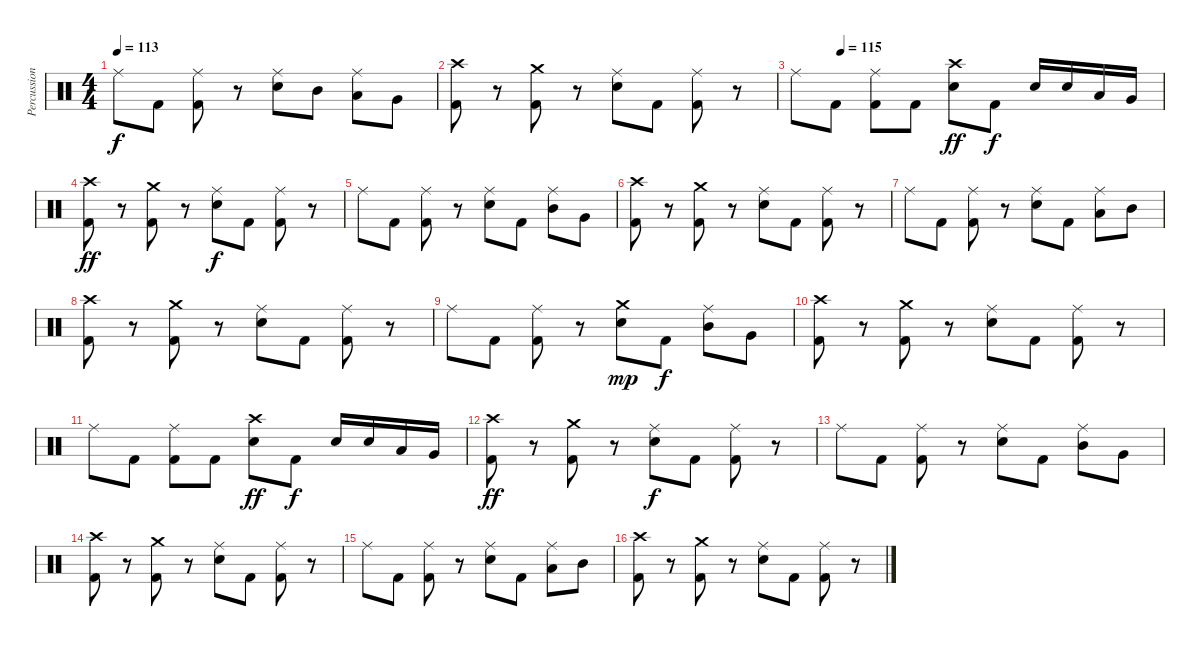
\track ("Percussion" "Percussion") {instrument percussion}
\staff {score}
\articulation defaults
\ts (4 4)
\tempo 113
\clef neutral
\ks c "Ride (middle)".8{dy f} "Kick (hit) 2".8
("Ride (middle)" "Kick (hit) 2").8 r.8 ("Ride (middle)" "Snare (hit) 2").8 "Mid Tom (hit)".8 ("Ride (middle)" "Low Tom (hit)").8 "Very Low Tom (hit)".8 |
("Crash high (hit)" "Kick (hit) 2").8 r.8 ("Crash medium (hit)" "Kick (hit) 2").8 r.8 ("Ride (middle)" "Snare (hit) 2").8 "Kick (hit) 2".8 ("Ride (middle)" "Kick (hit) 2").8 r.8 |
\tempo (115 0.125)
"Ride (middle)".8 "Kick (hit) 2".8 ("Ride (middle)" "Kick (hit) 2").8 "Kick (hit) 2".8 ("Crash high (hit)" "Snare (hit) 2").8{dy ff} "Kick (hit) 2".8{dy f} "Snare (hit) 2".16 "Snare (hit) 2".16 "Low Tom (hit)".16 "Very Low Tom (hit)".16 |
("Crash high (hit)" "Kick (hit) 2").8{dy ff} r.8 ("Crash medium (hit)" "Kick (hit) 2").8 r.8 ("Ride (middle)" "Snare (hit) 2").8{dy f} "Kick (hit) 2".8 ("Ride (middle)" "Kick (hit) 2").8 r.8 |
"Ride (middle)".8 "Kick (hit) 2".8 ("Ride (middle)" "Kick (hit) 2").8 r.8 ("Ride (middle)" "Snare (hit) 2").8 "Kick (hit) 2".8 ("Ride (middle)" "Mid Tom (hit)").8 "Very Low Tom (hit)".8 |
("Crash high (hit)" "Kick (hit) 2").8 r.8 ("Crash medium (hit)" "Kick (hit) 2").8 r.8 ("Ride (middle)" "Snare (hit) 2").8 "Kick (hit) 2".8 ("Ride (middle)" "Kick (hit) 2").8 r.8 |
"Ride (middle)".8 "Kick (hit) 2".8 ("Ride (middle)" "Kick (hit) 2").8 r.8 ("Ride (middle)" "Snare (hit) 2").8 "Kick (hit) 2".8 ("Ride (middle)" "Low Tom (hit)").8 "Mid Tom (hit)".8 |
("Crash high (hit)" "Kick (hit) 2").8 r.8 ("Crash medium (hit)" "Kick (hit) 2").8 r.8 ("Ride (middle)" "Snare (hit) 2").8 "Kick (hit) 2".8 ("Ride (middle)" "Kick (hit) 2").8 r.8 |
"Ride (middle)".8 "Kick (hit) 2".8 ("Ride (middle)" "Kick (hit) 2").8 r.8 ("Crash medium (hit)" "Snare (hit) 2").8{dy mp} "Kick (hit) 2".8{dy f} ("Ride (middle)" "Mid Tom (hit)").8 "Very Low Tom (hit)".8 |
("Crash high (hit)" "Kick (hit) 2").8 r.8 ("Crash medium (hit)" "Kick (hit) 2").8 r.8 ("Ride (middle)" "Snare (hit) 2").8 "Kick (hit) 2".8 ("Ride (middle)" "Kick (hit) 2").8 r.8 |
"Ride (middle)".8 "Kick (hit) 2".8 ("Ride (middle)" "Kick (hit) 2").8 "Kick (hit) 2".8 ("Crash high (hit)" "Snare (hit) 2").8{dy ff} "Kick (hit) 2".8{dy f} "Snare (hit) 2".16 "Snare (hit) 2".16 "Low Tom (hit)".16 "Very Low Tom (hit)".16 |
("Crash high (hit)" "Kick (hit) 2").8{dy ff} r.8 ("Crash medium (hit)" "Kick (hit) 2").8 r.8 ("Ride (middle)" "Snare (hit) 2").8{dy f} "Kick (hit) 2".8 ("Ride (middle)" "Kick (hit) 2").8 r.8 |
"Ride (middle)".8 "Kick (hit) 2".8 ("Ride (middle)" "Kick (hit) 2").8 r.8 ("Ride (middle)" "Snare (hit) 2").8 "Kick (hit) 2".8 ("Ride (middle)" "Mid Tom (hit)").8 "Very Low Tom (hit)".8 |
("Crash high (hit)" "Kick (hit) 2").8 r.8 ("Crash medium (hit)" "Kick (hit) 2").8 r.8 ("Ride (middle)" "Snare (hit) 2").8 "Kick (hit) 2".8 ("Ride (middle)" "Kick (hit) 2").8 r.8 |
"Ride (middle)".8 "Kick (hit) 2".8 ("Ride (middle)" "Kick (hit) 2").8 r.8 ("Ride (middle)" "Snare (hit) 2").8 "Kick (hit) 2".8 ("Ride (middle)" "Low Tom (hit)").8 "Mid Tom (hit)".8 |
("Crash high (hit)" "Kick (hit) 2").8 r.8 ("Crash medium (hit)" "Kick (hit) 2").8 r.8 ("Ride (middle)" "Snare (hit) 2").8 "Kick (hit) 2".8 ("Ride (middle)" "Kick (hit) 2").8 r.8
